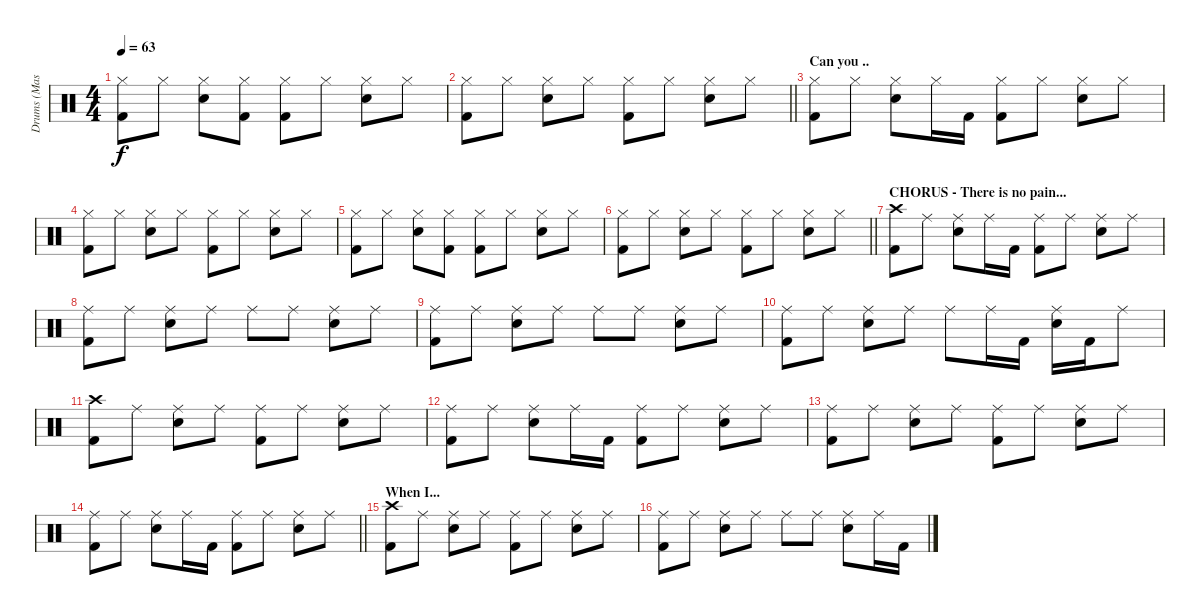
\track ("Drums (Mason)" "Drums (Mas") {instrument percussion}
\staff {score}
\articulation defaults
\ts (4 4)
\tempo 63
\clef neutral
\ks c
("Hi-Hat (closed)" "Kick (hit) 2").8{dy f} "Hi-Hat (closed)".8 ("Hi-Hat (closed)" "Snare (hit) 2").8 ("Hi-Hat (closed)" "Kick (hit) 2").8 ("Hi-Hat (closed)" "Kick (hit) 2").8 "Hi-Hat (closed)".8 ("Hi-Hat (closed)" "Snare (hit) 2").8 "Hi-Hat (closed)".8 |
\barLineRight lightlight
("Hi-Hat (closed)" "Kick (hit) 2").8 "Hi-Hat (closed)".8 ("Hi-Hat (closed)" "Snare (hit) 2").8 "Hi-Hat (closed)".8 ("Hi-Hat (closed)" "Kick (hit) 2").8 "Hi-Hat (closed)".8 ("Hi-Hat (closed)" "Snare (hit) 2").8 "Hi-Hat (closed)".8 |
\section ("" "Can you ..")
("Hi-Hat (closed)" "Kick (hit) 2").8 "Hi-Hat (closed)".8 ("Hi-Hat (closed)" "Snare (hit) 2").8 "Hi-Hat (closed)".16 "Kick (hit) 2".16 ("Hi-Hat (closed)" "Kick (hit) 2").8 "Hi-Hat (closed)".8 ("Hi-Hat (closed)" "Snare (hit) 2").8 "Hi-Hat (closed)".8 |
("Hi-Hat (closed)" "Kick (hit) 2").8 "Hi-Hat (closed)".8 ("Hi-Hat (closed)" "Snare (hit) 2").8 "Hi-Hat (closed)".8 ("Hi-Hat (closed)" "Kick (hit) 2").8 "Hi-Hat (closed)".8 ("Hi-Hat (closed)" "Snare (hit) 2").8 "Hi-Hat (closed)".8 |
("Hi-Hat (closed)" "Kick (hit) 2").8 "Hi-Hat (closed)".8 ("Hi-Hat (closed)" "Snare (hit) 2").8 ("Hi-Hat (closed)" "Kick (hit) 2").8 ("Hi-Hat (closed)" "Kick (hit) 2").8 "Hi-Hat (closed)".8 ("Hi-Hat (closed)" "Snare (hit) 2").8 "Hi-Hat (closed)".8 |
\barLineRight lightlight
("Hi-Hat (closed)" "Kick (hit) 2").8 "Hi-Hat (closed)".8 ("Hi-Hat (closed)" "Snare (hit) 2").8 "Hi-Hat (closed)".8 ("Hi-Hat (closed)" "Kick (hit) 2").8 "Hi-Hat (closed)".8 ("Hi-Hat (closed)" "Snare (hit) 2").8 "Hi-Hat (closed)".8 |
\section ("" "CHORUS - There is no pain...")
("Crash high (hit)" "Kick (hit) 2").8 "Ride (middle)".8 ("Ride (middle)" "Snare (hit) 2").8 "Ride (middle)".16 "Kick (hit) 2".16 ("Ride (middle)" "Kick (hit) 2").8 "Ride (middle)".8 ("Ride (middle)" "Snare (hit) 2").8 "Ride (middle)".8 |
("Ride (middle)" "Kick (hit) 2").8 "Ride (middle)".8 ("Ride (middle)" "Snare (hit) 2").8 "Ride (middle)".8 "Ride (middle)".8 "Ride (middle)".8 ("Ride (middle)" "Snare (hit) 2").8 "Ride (middle)".8 |
("Ride (middle)" "Kick (hit) 2").8 "Ride (middle)".8 ("Ride (middle)" "Snare (hit) 2").8 "Ride (middle)".8 "Ride (middle)".8 "Ride (middle)".8 ("Ride (middle)" "Snare (hit) 2").8 "Ride (middle)".8 |
("Ride (middle)" "Kick (hit) 2").8 "Ride (middle)".8 ("Ride (middle)" "Snare (hit) 2").8 "Ride (middle)".8 "Ride (middle)".8 "Ride (middle)".16 "Kick (hit) 2".16 ("Ride (middle)" "Snare (hit) 2").16 "Kick (hit) 2".16 "Ride (middle)".8 |
("Crash high (hit)" "Kick (hit) 2").8 "Ride (middle)".8 ("Ride (middle)" "Snare (hit) 2").8 "Ride (middle)".8 ("Ride (middle)" "Kick (hit) 2").8 "Ride (middle)".8 ("Ride (middle)" "Snare (hit) 2").8 "Ride (middle)".8 |
("Ride (middle)" "Kick (hit) 2").8 "Ride (middle)".8 ("Ride (middle)" "Snare (hit) 2").8 "Ride (middle)".16 "Kick (hit) 2".16 ("Ride (middle)" "Kick (hit) 2").8 "Ride (middle)".8 ("Ride (middle)" "Snare (hit) 2").8 "Ride (middle)".8 |
("Ride (middle)" "Kick (hit) 2").8 "Ride (middle)".8 ("Ride (middle)" "Snare (hit) 2").8 "Ride (middle)".8 ("Ride (middle)" "Kick (hit) 2").8 "Ride (middle)".8 ("Ride (middle)" "Snare (hit) 2").8 "Ride (middle)".8 |
\barLineRight lightlight
("Ride (middle)" "Kick (hit) 2").8 "Ride (middle)".8 ("Ride (middle)" "Snare (hit) 2").8 "Ride (middle)".16 "Kick (hit) 2".16 ("Ride (middle)" "Kick (hit) 2").8 "Ride (middle)".8 ("Ride (middle)" "Snare (hit) 2").8 "Ride (middle)".8 |
\section ("" "When I...")
("Crash high (hit)" "Kick (hit) 2").8 "Ride (middle)".8 ("Ride (middle)" "Snare (hit) 2").8 "Ride (middle)".8 ("Ride (middle)" "Kick (hit) 2").8 "Ride (middle)".8 ("Ride (middle)" "Snare (hit) 2").8 "Ride (middle)".8 |
("Ride (middle)" "Kick (hit) 2").8 "Ride (middle)".8 ("Ride (middle)" "Snare (hit) 2").8 "Ride (middle)".8 "Ride (middle)".8 "Ride (middle)".8 ("Ride (middle)" "Snare (hit) 2").8 "Ride (middle)".16 "Kick (hit) 2".16
